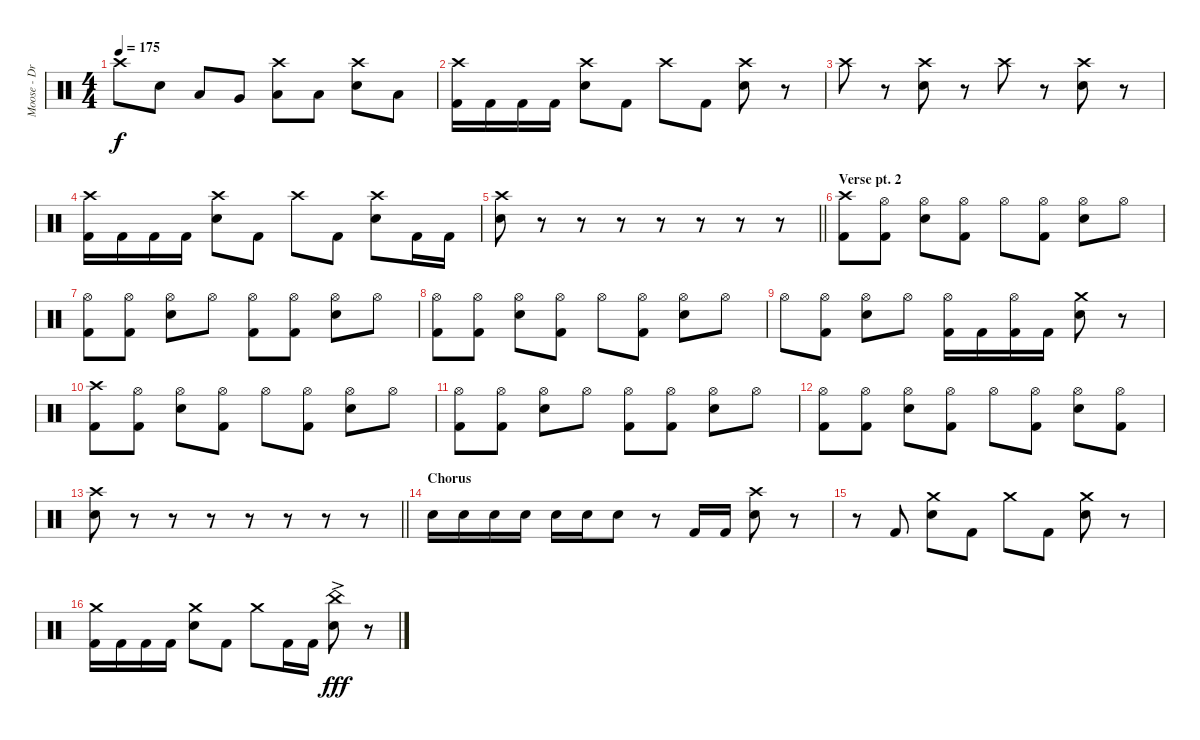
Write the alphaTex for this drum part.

\track ("Moose - Drums" "Moose - Dr") {instrument percussion}
\staff {score}
\articulation defaults
\ts (4 4)
\tempo 175
\clef neutral
\ks c "Crash high (hit)".8{dy f} "Electric Snare (hit)".8 "Low Tom (hit)".8 "Very Low Tom (hit)".8
("Crash high (hit)" "Low Floor Tom (hit)").8 "Low Floor Tom (hit)".8 ("Crash high (hit)" "Electric Snare (hit)").8 "Low Floor Tom (hit)".8 |
("Crash high (hit)" "Kick (hit) 2").16 "Kick (hit) 2".16 "Kick (hit) 2".16 "Kick (hit) 2".16 ("Crash high (hit)" "Electric Snare (hit)").8 "Kick (hit) 2".8 "Crash high (hit)".8 "Kick (hit) 2".8 ("Crash high (hit)" "Electric Snare (hit)").8 r.8 |
"Crash high (hit)".8 r.8 ("Crash high (hit)" "Electric Snare (hit)").8 r.8 "Crash high (hit)".8 r.8 ("Crash high (hit)" "Electric Snare (hit)").8 r.8 |
("Crash high (hit)" "Kick (hit) 2").16 "Kick (hit) 2".16 "Kick (hit) 2".16 "Kick (hit) 2".16 ("Crash high (hit)" "Electric Snare (hit)").8 "Kick (hit) 2".8 "Crash high (hit)".8 "Kick (hit) 2".8 ("Crash high (hit)" "Electric Snare (hit)").8 "Kick (hit) 2".16 "Kick (hit) 2".16 |
\barLineRight lightlight
("Crash high (hit)" "Electric Snare (hit)").8 r.8 r.8 r.8 r.8 r.8 r.8 r.8 |
\section ("" "Verse pt. 2")
("Crash high (hit)" "Kick (hit) 2").8 ("Hi-Hat (open)" "Kick (hit) 2").8 ("Hi-Hat (open)" "Electric Snare (hit)").8 ("Hi-Hat (open)" "Kick (hit) 2").8 "Hi-Hat (open)".8 ("Hi-Hat (open)" "Kick (hit) 2").8 ("Hi-Hat (open)" "Electric Snare (hit)").8 "Hi-Hat (open)".8 |
("Hi-Hat (open)" "Kick (hit) 2").8 ("Hi-Hat (open)" "Kick (hit) 2").8 ("Hi-Hat (open)" "Electric Snare (hit)").8 "Hi-Hat (open)".8 ("Hi-Hat (open)" "Kick (hit) 2").8 ("Hi-Hat (open)" "Kick (hit) 2").8 ("Hi-Hat (open)" "Electric Snare (hit)").8 "Hi-Hat (open)".8 |
("Hi-Hat (open)" "Kick (hit) 2").8 ("Hi-Hat (open)" "Kick (hit) 2").8 ("Hi-Hat (open)" "Electric Snare (hit)").8 ("Hi-Hat (open)" "Kick (hit) 2").8 "Hi-Hat (open)".8 ("Hi-Hat (open)" "Kick (hit) 2").8 ("Hi-Hat (open)" "Electric Snare (hit)").8 "Hi-Hat (open)".8 |
"Hi-Hat (open)".8 ("Hi-Hat (open)" "Kick (hit) 2").8 ("Hi-Hat (open)" "Electric Snare (hit)").8 "Hi-Hat (open)".8 ("Hi-Hat (open)" "Kick (hit) 2").16 "Kick (hit) 2".16 ("Hi-Hat (open)" "Kick (hit) 2").16 "Kick (hit) 2".16 ("Crash medium (hit)" "Electric Snare (hit)").8 r.8 |
("Crash high (hit)" "Kick (hit) 2").8 ("Hi-Hat (open)" "Kick (hit) 2").8 ("Hi-Hat (open)" "Electric Snare (hit)").8 ("Hi-Hat (open)" "Kick (hit) 2").8 "Hi-Hat (open)".8 ("Hi-Hat (open)" "Kick (hit) 2").8 ("Hi-Hat (open)" "Electric Snare (hit)").8 "Hi-Hat (open)".8 |
("Hi-Hat (open)" "Kick (hit) 2").8 ("Hi-Hat (open)" "Kick (hit) 2").8 ("Hi-Hat (open)" "Electric Snare (hit)").8 "Hi-Hat (open)".8 ("Hi-Hat (open)" "Kick (hit) 2").8 ("Hi-Hat (open)" "Kick (hit) 2").8 ("Hi-Hat (open)" "Electric Snare (hit)").8 "Hi-Hat (open)".8 |
("Hi-Hat (open)" "Kick (hit) 2").8 ("Hi-Hat (open)" "Kick (hit) 2").8 ("Hi-Hat (open)" "Electric Snare (hit)").8 ("Hi-Hat (open)" "Kick (hit) 2").8 "Hi-Hat (open)".8 ("Hi-Hat (open)" "Kick (hit) 2").8 ("Hi-Hat (open)" "Electric Snare (hit)").8 ("Hi-Hat (open)" "Kick (hit) 2").8 |
\barLineRight lightlight
("Crash high (hit)" "Electric Snare (hit)").8 r.8 r.8 r.8 r.8 r.8 r.8 r.8 |
\section ("" "Chorus")
"Electric Snare (hit)".16 "Electric Snare (hit)".16 "Electric Snare (hit)".16 "Electric Snare (hit)".16 "Electric Snare (hit)".16 "Electric Snare (hit)".16 "Electric Snare (hit)".8 r.8 "Kick (hit) 2".16 "Kick (hit) 2".16 ("Crash high (hit)" "Electric Snare (hit)").8 r.8 |
r.8 "Kick (hit) 2".8 ("Crash medium (hit)" "Electric Snare (hit)").8 "Kick (hit) 2".8 "Crash medium (hit)".8 "Kick (hit) 2".8 ("Crash medium (hit)" "Electric Snare (hit)").8 r.8 |
("Crash medium (hit)" "Kick (hit) 2").16 "Kick (hit) 2".16 "Kick (hit) 2".16 "Kick (hit) 2".16 ("Crash medium (hit)" "Electric Snare (hit)").8 "Kick (hit) 2".8 "Crash medium (hit)".8 "Kick (hit) 2".16 "Kick (hit) 2".16 ("China (hit)"{ac} "Electric Snare (hit)").8{dy fff} r.8
